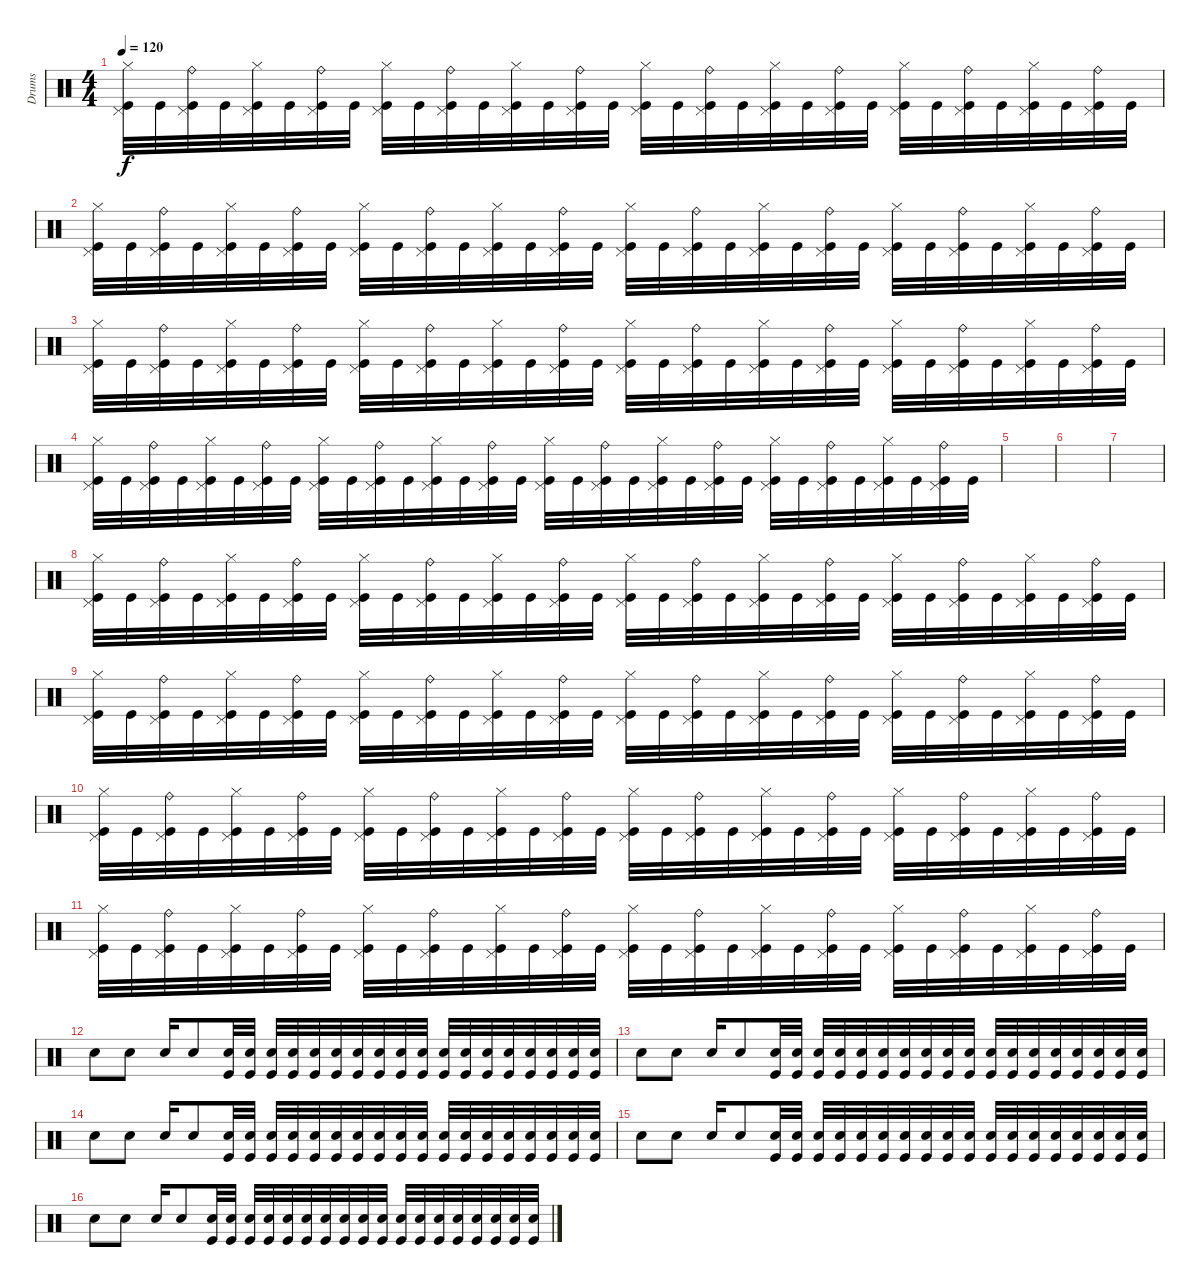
\track ("Drums" "Drums") {instrument percussion}
\staff {score}
\articulation defaults
\ts (4 4)
\tempo 120
\clef neutral
\ks c
("Hi-Hat (closed)" "Pedal Hi-Hat (hit)" "Kick (hit)").32{dy f} "Kick (hit)".32 ("Ride (bell)" "Pedal Hi-Hat (hit)" "Kick (hit)").32 "Kick (hit)".32 ("Hi-Hat (closed)" "Pedal Hi-Hat (hit)" "Kick (hit)").32 "Kick (hit)".32 ("Ride (bell)" "Pedal Hi-Hat (hit)" "Kick (hit)").32 "Kick (hit)".32 ("Hi-Hat (closed)" "Pedal Hi-Hat (hit)" "Kick (hit)").32 "Kick (hit)".32 ("Ride (bell)" "Pedal Hi-Hat (hit)" "Kick (hit)").32 "Kick (hit)".32 ("Hi-Hat (closed)" "Pedal Hi-Hat (hit)" "Kick (hit)").32 "Kick (hit)".32 ("Ride (bell)" "Pedal Hi-Hat (hit)" "Kick (hit)").32 "Kick (hit)".32 ("Hi-Hat (closed)" "Pedal Hi-Hat (hit)" "Kick (hit)").32 "Kick (hit)".32 ("Ride (bell)" "Pedal Hi-Hat (hit)" "Kick (hit)").32 "Kick (hit)".32 ("Hi-Hat (closed)" "Pedal Hi-Hat (hit)" "Kick (hit)").32 "Kick (hit)".32 ("Ride (bell)" "Pedal Hi-Hat (hit)" "Kick (hit)").32 "Kick (hit)".32 ("Hi-Hat (closed)" "Pedal Hi-Hat (hit)" "Kick (hit)").32 "Kick (hit)".32 ("Ride (bell)" "Pedal Hi-Hat (hit)" "Kick (hit)").32 "Kick (hit)".32 ("Hi-Hat (closed)" "Pedal Hi-Hat (hit)" "Kick (hit)").32 "Kick (hit)".32 ("Ride (bell)" "Pedal Hi-Hat (hit)" "Kick (hit)").32 "Kick (hit)".32 |
("Hi-Hat (closed)" "Pedal Hi-Hat (hit)" "Kick (hit)").32 "Kick (hit)".32 ("Ride (bell)" "Pedal Hi-Hat (hit)" "Kick (hit)").32 "Kick (hit)".32 ("Hi-Hat (closed)" "Pedal Hi-Hat (hit)" "Kick (hit)").32 "Kick (hit)".32 ("Ride (bell)" "Pedal Hi-Hat (hit)" "Kick (hit)").32 "Kick (hit)".32 ("Hi-Hat (closed)" "Pedal Hi-Hat (hit)" "Kick (hit)").32 "Kick (hit)".32 ("Ride (bell)" "Pedal Hi-Hat (hit)" "Kick (hit)").32 "Kick (hit)".32 ("Hi-Hat (closed)" "Pedal Hi-Hat (hit)" "Kick (hit)").32 "Kick (hit)".32 ("Ride (bell)" "Pedal Hi-Hat (hit)" "Kick (hit)").32 "Kick (hit)".32 ("Hi-Hat (closed)" "Pedal Hi-Hat (hit)" "Kick (hit)").32 "Kick (hit)".32 ("Ride (bell)" "Pedal Hi-Hat (hit)" "Kick (hit)").32 "Kick (hit)".32 ("Hi-Hat (closed)" "Pedal Hi-Hat (hit)" "Kick (hit)").32 "Kick (hit)".32 ("Ride (bell)" "Pedal Hi-Hat (hit)" "Kick (hit)").32 "Kick (hit)".32 ("Hi-Hat (closed)" "Pedal Hi-Hat (hit)" "Kick (hit)").32 "Kick (hit)".32 ("Ride (bell)" "Pedal Hi-Hat (hit)" "Kick (hit)").32 "Kick (hit)".32 ("Hi-Hat (closed)" "Pedal Hi-Hat (hit)" "Kick (hit)").32 "Kick (hit)".32 ("Ride (bell)" "Pedal Hi-Hat (hit)" "Kick (hit)").32 "Kick (hit)".32 |
("Hi-Hat (closed)" "Pedal Hi-Hat (hit)" "Kick (hit)").32 "Kick (hit)".32 ("Ride (bell)" "Pedal Hi-Hat (hit)" "Kick (hit)").32 "Kick (hit)".32 ("Hi-Hat (closed)" "Pedal Hi-Hat (hit)" "Kick (hit)").32 "Kick (hit)".32 ("Ride (bell)" "Pedal Hi-Hat (hit)" "Kick (hit)").32 "Kick (hit)".32 ("Hi-Hat (closed)" "Pedal Hi-Hat (hit)" "Kick (hit)").32 "Kick (hit)".32 ("Ride (bell)" "Pedal Hi-Hat (hit)" "Kick (hit)").32 "Kick (hit)".32 ("Hi-Hat (closed)" "Pedal Hi-Hat (hit)" "Kick (hit)").32 "Kick (hit)".32 ("Ride (bell)" "Pedal Hi-Hat (hit)" "Kick (hit)").32 "Kick (hit)".32 ("Hi-Hat (closed)" "Pedal Hi-Hat (hit)" "Kick (hit)").32 "Kick (hit)".32 ("Ride (bell)" "Pedal Hi-Hat (hit)" "Kick (hit)").32 "Kick (hit)".32 ("Hi-Hat (closed)" "Pedal Hi-Hat (hit)" "Kick (hit)").32 "Kick (hit)".32 ("Ride (bell)" "Pedal Hi-Hat (hit)" "Kick (hit)").32 "Kick (hit)".32 ("Hi-Hat (closed)" "Pedal Hi-Hat (hit)" "Kick (hit)").32 "Kick (hit)".32 ("Ride (bell)" "Pedal Hi-Hat (hit)" "Kick (hit)").32 "Kick (hit)".32 ("Hi-Hat (closed)" "Pedal Hi-Hat (hit)" "Kick (hit)").32 "Kick (hit)".32 ("Ride (bell)" "Pedal Hi-Hat (hit)" "Kick (hit)").32 "Kick (hit)".32 |
("Hi-Hat (closed)" "Pedal Hi-Hat (hit)" "Kick (hit)").32 "Kick (hit)".32 ("Ride (bell)" "Pedal Hi-Hat (hit)" "Kick (hit)").32 "Kick (hit)".32 ("Hi-Hat (closed)" "Pedal Hi-Hat (hit)" "Kick (hit)").32 "Kick (hit)".32 ("Ride (bell)" "Pedal Hi-Hat (hit)" "Kick (hit)").32 "Kick (hit)".32 ("Hi-Hat (closed)" "Pedal Hi-Hat (hit)" "Kick (hit)").32 "Kick (hit)".32 ("Ride (bell)" "Pedal Hi-Hat (hit)" "Kick (hit)").32 "Kick (hit)".32 ("Hi-Hat (closed)" "Pedal Hi-Hat (hit)" "Kick (hit)").32 "Kick (hit)".32 ("Ride (bell)" "Pedal Hi-Hat (hit)" "Kick (hit)").32 "Kick (hit)".32 ("Hi-Hat (closed)" "Pedal Hi-Hat (hit)" "Kick (hit)").32 "Kick (hit)".32 ("Ride (bell)" "Pedal Hi-Hat (hit)" "Kick (hit)").32 "Kick (hit)".32 ("Hi-Hat (closed)" "Pedal Hi-Hat (hit)" "Kick (hit)").32 "Kick (hit)".32 ("Ride (bell)" "Pedal Hi-Hat (hit)" "Kick (hit)").32 "Kick (hit)".32 ("Hi-Hat (closed)" "Pedal Hi-Hat (hit)" "Kick (hit)").32 "Kick (hit)".32 ("Ride (bell)" "Pedal Hi-Hat (hit)" "Kick (hit)").32 "Kick (hit)".32 ("Hi-Hat (closed)" "Pedal Hi-Hat (hit)" "Kick (hit)").32 "Kick (hit)".32 ("Ride (bell)" "Pedal Hi-Hat (hit)" "Kick (hit)").32 "Kick (hit)".32 |
|
|
|
("Hi-Hat (closed)" "Pedal Hi-Hat (hit)" "Kick (hit)").32 "Kick (hit)".32 ("Ride (bell)" "Pedal Hi-Hat (hit)" "Kick (hit)").32 "Kick (hit)".32 ("Hi-Hat (closed)" "Pedal Hi-Hat (hit)" "Kick (hit)").32 "Kick (hit)".32 ("Ride (bell)" "Pedal Hi-Hat (hit)" "Kick (hit)").32 "Kick (hit)".32 ("Hi-Hat (closed)" "Pedal Hi-Hat (hit)" "Kick (hit)").32 "Kick (hit)".32 ("Ride (bell)" "Pedal Hi-Hat (hit)" "Kick (hit)").32 "Kick (hit)".32 ("Hi-Hat (closed)" "Pedal Hi-Hat (hit)" "Kick (hit)").32 "Kick (hit)".32 ("Ride (bell)" "Pedal Hi-Hat (hit)" "Kick (hit)").32 "Kick (hit)".32 ("Hi-Hat (closed)" "Pedal Hi-Hat (hit)" "Kick (hit)").32 "Kick (hit)".32 ("Ride (bell)" "Pedal Hi-Hat (hit)" "Kick (hit)").32 "Kick (hit)".32 ("Hi-Hat (closed)" "Pedal Hi-Hat (hit)" "Kick (hit)").32 "Kick (hit)".32 ("Ride (bell)" "Pedal Hi-Hat (hit)" "Kick (hit)").32 "Kick (hit)".32 ("Hi-Hat (closed)" "Pedal Hi-Hat (hit)" "Kick (hit)").32 "Kick (hit)".32 ("Ride (bell)" "Pedal Hi-Hat (hit)" "Kick (hit)").32 "Kick (hit)".32 ("Hi-Hat (closed)" "Pedal Hi-Hat (hit)" "Kick (hit)").32 "Kick (hit)".32 ("Ride (bell)" "Pedal Hi-Hat (hit)" "Kick (hit)").32 "Kick (hit)".32 |
("Hi-Hat (closed)" "Pedal Hi-Hat (hit)" "Kick (hit)").32 "Kick (hit)".32 ("Ride (bell)" "Pedal Hi-Hat (hit)" "Kick (hit)").32 "Kick (hit)".32 ("Hi-Hat (closed)" "Pedal Hi-Hat (hit)" "Kick (hit)").32 "Kick (hit)".32 ("Ride (bell)" "Pedal Hi-Hat (hit)" "Kick (hit)").32 "Kick (hit)".32 ("Hi-Hat (closed)" "Pedal Hi-Hat (hit)" "Kick (hit)").32 "Kick (hit)".32 ("Ride (bell)" "Pedal Hi-Hat (hit)" "Kick (hit)").32 "Kick (hit)".32 ("Hi-Hat (closed)" "Pedal Hi-Hat (hit)" "Kick (hit)").32 "Kick (hit)".32 ("Ride (bell)" "Pedal Hi-Hat (hit)" "Kick (hit)").32 "Kick (hit)".32 ("Hi-Hat (closed)" "Pedal Hi-Hat (hit)" "Kick (hit)").32 "Kick (hit)".32 ("Ride (bell)" "Pedal Hi-Hat (hit)" "Kick (hit)").32 "Kick (hit)".32 ("Hi-Hat (closed)" "Pedal Hi-Hat (hit)" "Kick (hit)").32 "Kick (hit)".32 ("Ride (bell)" "Pedal Hi-Hat (hit)" "Kick (hit)").32 "Kick (hit)".32 ("Hi-Hat (closed)" "Pedal Hi-Hat (hit)" "Kick (hit)").32 "Kick (hit)".32 ("Ride (bell)" "Pedal Hi-Hat (hit)" "Kick (hit)").32 "Kick (hit)".32 ("Hi-Hat (closed)" "Pedal Hi-Hat (hit)" "Kick (hit)").32 "Kick (hit)".32 ("Ride (bell)" "Pedal Hi-Hat (hit)" "Kick (hit)").32 "Kick (hit)".32 |
("Hi-Hat (closed)" "Pedal Hi-Hat (hit)" "Kick (hit)").32 "Kick (hit)".32 ("Ride (bell)" "Pedal Hi-Hat (hit)" "Kick (hit)").32 "Kick (hit)".32 ("Hi-Hat (closed)" "Pedal Hi-Hat (hit)" "Kick (hit)").32 "Kick (hit)".32 ("Ride (bell)" "Pedal Hi-Hat (hit)" "Kick (hit)").32 "Kick (hit)".32 ("Hi-Hat (closed)" "Pedal Hi-Hat (hit)" "Kick (hit)").32 "Kick (hit)".32 ("Ride (bell)" "Pedal Hi-Hat (hit)" "Kick (hit)").32 "Kick (hit)".32 ("Hi-Hat (closed)" "Pedal Hi-Hat (hit)" "Kick (hit)").32 "Kick (hit)".32 ("Ride (bell)" "Pedal Hi-Hat (hit)" "Kick (hit)").32 "Kick (hit)".32 ("Hi-Hat (closed)" "Pedal Hi-Hat (hit)" "Kick (hit)").32 "Kick (hit)".32 ("Ride (bell)" "Pedal Hi-Hat (hit)" "Kick (hit)").32 "Kick (hit)".32 ("Hi-Hat (closed)" "Pedal Hi-Hat (hit)" "Kick (hit)").32 "Kick (hit)".32 ("Ride (bell)" "Pedal Hi-Hat (hit)" "Kick (hit)").32 "Kick (hit)".32 ("Hi-Hat (closed)" "Pedal Hi-Hat (hit)" "Kick (hit)").32 "Kick (hit)".32 ("Ride (bell)" "Pedal Hi-Hat (hit)" "Kick (hit)").32 "Kick (hit)".32 ("Hi-Hat (closed)" "Pedal Hi-Hat (hit)" "Kick (hit)").32 "Kick (hit)".32 ("Ride (bell)" "Pedal Hi-Hat (hit)" "Kick (hit)").32 "Kick (hit)".32 |
("Hi-Hat (closed)" "Pedal Hi-Hat (hit)" "Kick (hit)").32 "Kick (hit)".32 ("Ride (bell)" "Pedal Hi-Hat (hit)" "Kick (hit)").32 "Kick (hit)".32 ("Hi-Hat (closed)" "Pedal Hi-Hat (hit)" "Kick (hit)").32 "Kick (hit)".32 ("Ride (bell)" "Pedal Hi-Hat (hit)" "Kick (hit)").32 "Kick (hit)".32 ("Hi-Hat (closed)" "Pedal Hi-Hat (hit)" "Kick (hit)").32 "Kick (hit)".32 ("Ride (bell)" "Pedal Hi-Hat (hit)" "Kick (hit)").32 "Kick (hit)".32 ("Hi-Hat (closed)" "Pedal Hi-Hat (hit)" "Kick (hit)").32 "Kick (hit)".32 ("Ride (bell)" "Pedal Hi-Hat (hit)" "Kick (hit)").32 "Kick (hit)".32 ("Hi-Hat (closed)" "Pedal Hi-Hat (hit)" "Kick (hit)").32 "Kick (hit)".32 ("Ride (bell)" "Pedal Hi-Hat (hit)" "Kick (hit)").32 "Kick (hit)".32 ("Hi-Hat (closed)" "Pedal Hi-Hat (hit)" "Kick (hit)").32 "Kick (hit)".32 ("Ride (bell)" "Pedal Hi-Hat (hit)" "Kick (hit)").32 "Kick (hit)".32 ("Hi-Hat (closed)" "Pedal Hi-Hat (hit)" "Kick (hit)").32 "Kick (hit)".32 ("Ride (bell)" "Pedal Hi-Hat (hit)" "Kick (hit)").32 "Kick (hit)".32 ("Hi-Hat (closed)" "Pedal Hi-Hat (hit)" "Kick (hit)").32 "Kick (hit)".32 ("Ride (bell)" "Pedal Hi-Hat (hit)" "Kick (hit)").32 "Kick (hit)".32 |
"Electric Snare (hit)".8 "Electric Snare (hit)".8 "Electric Snare (hit)".16 "Electric Snare (hit)".8 ("Kick (hit)" "Electric Snare (hit)").32 ("Kick (hit)" "Electric Snare (hit)").32 ("Kick (hit)" "Electric Snare (hit)").32 ("Kick (hit)" "Electric Snare (hit)").32 ("Kick (hit)" "Electric Snare (hit)").32 ("Kick (hit)" "Electric Snare (hit)").32 ("Kick (hit)" "Electric Snare (hit)").32 ("Kick (hit)" "Electric Snare (hit)").32 ("Kick (hit)" "Electric Snare (hit)").32 ("Kick (hit)" "Electric Snare (hit)").32 ("Kick (hit)" "Electric Snare (hit)").32 ("Kick (hit)" "Electric Snare (hit)").32 ("Kick (hit)" "Electric Snare (hit)").32 ("Kick (hit)" "Electric Snare (hit)").32 ("Kick (hit)" "Electric Snare (hit)").32 ("Kick (hit)" "Electric Snare (hit)").32 ("Kick (hit)" "Electric Snare (hit)").32 ("Kick (hit)" "Electric Snare (hit)").32 |
"Electric Snare (hit)".8 "Electric Snare (hit)".8 "Electric Snare (hit)".16 "Electric Snare (hit)".8 ("Kick (hit)" "Electric Snare (hit)").32 ("Kick (hit)" "Electric Snare (hit)").32 ("Kick (hit)" "Electric Snare (hit)").32 ("Kick (hit)" "Electric Snare (hit)").32 ("Kick (hit)" "Electric Snare (hit)").32 ("Kick (hit)" "Electric Snare (hit)").32 ("Kick (hit)" "Electric Snare (hit)").32 ("Kick (hit)" "Electric Snare (hit)").32 ("Kick (hit)" "Electric Snare (hit)").32 ("Kick (hit)" "Electric Snare (hit)").32 ("Kick (hit)" "Electric Snare (hit)").32 ("Kick (hit)" "Electric Snare (hit)").32 ("Kick (hit)" "Electric Snare (hit)").32 ("Kick (hit)" "Electric Snare (hit)").32 ("Kick (hit)" "Electric Snare (hit)").32 ("Kick (hit)" "Electric Snare (hit)").32 ("Kick (hit)" "Electric Snare (hit)").32 ("Kick (hit)" "Electric Snare (hit)").32 |
"Electric Snare (hit)".8 "Electric Snare (hit)".8 "Electric Snare (hit)".16 "Electric Snare (hit)".8 ("Kick (hit)" "Electric Snare (hit)").32 ("Kick (hit)" "Electric Snare (hit)").32 ("Kick (hit)" "Electric Snare (hit)").32 ("Kick (hit)" "Electric Snare (hit)").32 ("Kick (hit)" "Electric Snare (hit)").32 ("Kick (hit)" "Electric Snare (hit)").32 ("Kick (hit)" "Electric Snare (hit)").32 ("Kick (hit)" "Electric Snare (hit)").32 ("Kick (hit)" "Electric Snare (hit)").32 ("Kick (hit)" "Electric Snare (hit)").32 ("Kick (hit)" "Electric Snare (hit)").32 ("Kick (hit)" "Electric Snare (hit)").32 ("Kick (hit)" "Electric Snare (hit)").32 ("Kick (hit)" "Electric Snare (hit)").32 ("Kick (hit)" "Electric Snare (hit)").32 ("Kick (hit)" "Electric Snare (hit)").32 ("Kick (hit)" "Electric Snare (hit)").32 ("Kick (hit)" "Electric Snare (hit)").32 |
"Electric Snare (hit)".8 "Electric Snare (hit)".8 "Electric Snare (hit)".16 "Electric Snare (hit)".8 ("Kick (hit)" "Electric Snare (hit)").32 ("Kick (hit)" "Electric Snare (hit)").32 ("Kick (hit)" "Electric Snare (hit)").32 ("Kick (hit)" "Electric Snare (hit)").32 ("Kick (hit)" "Electric Snare (hit)").32 ("Kick (hit)" "Electric Snare (hit)").32 ("Kick (hit)" "Electric Snare (hit)").32 ("Kick (hit)" "Electric Snare (hit)").32 ("Kick (hit)" "Electric Snare (hit)").32 ("Kick (hit)" "Electric Snare (hit)").32 ("Kick (hit)" "Electric Snare (hit)").32 ("Kick (hit)" "Electric Snare (hit)").32 ("Kick (hit)" "Electric Snare (hit)").32 ("Kick (hit)" "Electric Snare (hit)").32 ("Kick (hit)" "Electric Snare (hit)").32 ("Kick (hit)" "Electric Snare (hit)").32 ("Kick (hit)" "Electric Snare (hit)").32 ("Kick (hit)" "Electric Snare (hit)").32 |
"Electric Snare (hit)".8 "Electric Snare (hit)".8 "Electric Snare (hit)".16 "Electric Snare (hit)".8 ("Kick (hit)" "Electric Snare (hit)").32 ("Kick (hit)" "Electric Snare (hit)").32 ("Kick (hit)" "Electric Snare (hit)").32 ("Kick (hit)" "Electric Snare (hit)").32 ("Kick (hit)" "Electric Snare (hit)").32 ("Kick (hit)" "Electric Snare (hit)").32 ("Kick (hit)" "Electric Snare (hit)").32 ("Kick (hit)" "Electric Snare (hit)").32 ("Kick (hit)" "Electric Snare (hit)").32 ("Kick (hit)" "Electric Snare (hit)").32 ("Kick (hit)" "Electric Snare (hit)").32 ("Kick (hit)" "Electric Snare (hit)").32 ("Kick (hit)" "Electric Snare (hit)").32 ("Kick (hit)" "Electric Snare (hit)").32 ("Kick (hit)" "Electric Snare (hit)").32 ("Kick (hit)" "Electric Snare (hit)").32 ("Kick (hit)" "Electric Snare (hit)").32 ("Kick (hit)" "Electric Snare (hit)").32
